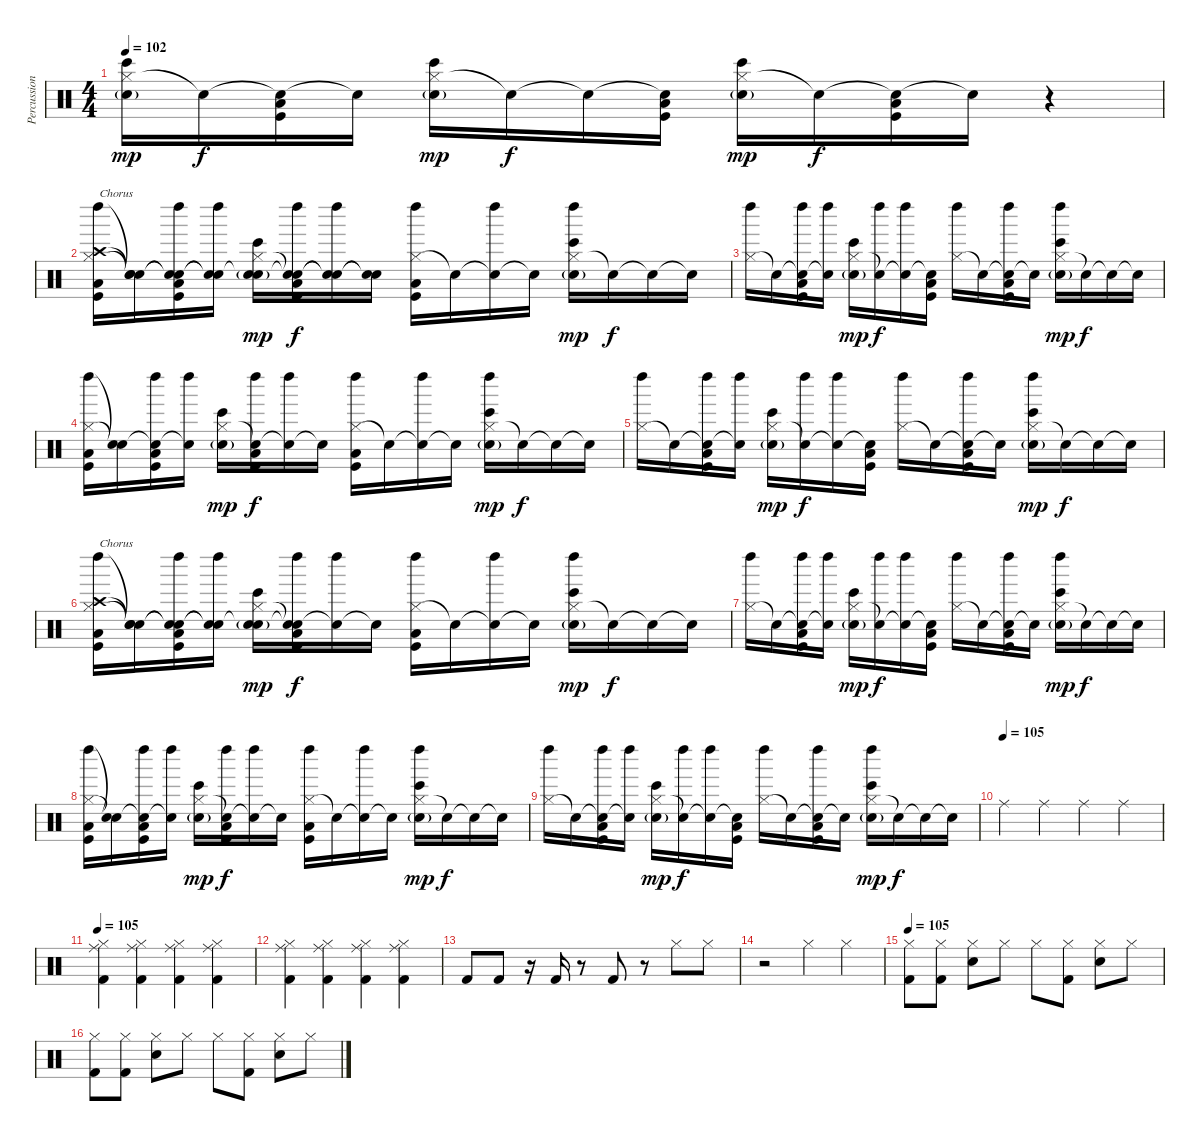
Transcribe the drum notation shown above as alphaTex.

\track ("Percussions" "Percussion") {instrument percussion}
\staff {score}
\articulation defaults
\ts (4 4)
\tempo 102
\clef neutral
\ks c
("Hi-Hat (closed)" "Bongo High (hit)" "Electric Snare (hit)"{g}).16{dy mp} "Snare (hit)"{t}.16{dy f} ("Snare (hit)"{t} "Low Floor Tom (hit)" "Kick (hit)").16 "Snare (hit)"{t}.16 ("Hi-Hat (closed)" "Bongo High (hit)" "Electric Snare (hit)"{g}).16{dy mp} "Snare (hit)"{t}.16{dy f} "Snare (hit)"{t}.16 ("Snare (hit)"{t} "Low Floor Tom (hit)" "Kick (hit)").16 ("Hi-Hat (closed)" "Bongo High (hit)" "Electric Snare (hit)"{g}).16{dy mp} "Snare (hit)"{t}.16{dy f} ("Snare (hit)"{t} "Low Floor Tom (hit)" "Kick (hit)").16 "Snare (hit)"{t}.16 r.4 |
("Crash high (hit)" "Hi-Hat (closed)" "Left Maraca (hit)" "Low Floor Tom (hit)" "Kick (hit)").16{txt "Chorus"} ("Snare (hit)"{t} "Snare (hit)"{t} "Snare (hit)"{t}).16 ("Snare (hit)"{t} "Snare (hit)"{t} "Left Maraca (hit)" "Low Floor Tom (hit)" "Kick (hit)").16 ("Snare (hit)"{t} "Snare (hit)"{t} "Left Maraca (hit)").16 ("Snare (hit)"{t} "Hi-Hat (closed)" "Bongo High (hit)" "Electric Snare (hit)"{g}).16{dy mp} ("Snare (hit)"{t} "Snare (hit)"{t} "Left Maraca (hit)" "Low Floor Tom (hit)" "Kick (hit)").16{dy f} ("Snare (hit)"{t} "Snare (hit)"{t} "Left Maraca (hit)").16 ("Snare (hit)"{t} "Snare (hit)"{t}).16 ("Hi-Hat (closed)" "Left Maraca (hit)" "Low Floor Tom (hit)" "Kick (hit)").16 "Snare (hit)"{t}.16 ("Snare (hit)"{t} "Left Maraca (hit)").16 "Snare (hit)"{t}.16 ("Hi-Hat (closed)" "Left Maraca (hit)" "Bongo High (hit)" "Electric Snare (hit)"{g}).16{dy mp} "Snare (hit)"{t}.16{dy f} "Snare (hit)"{t}.16 "Snare (hit)"{t}.16 |
("Hi-Hat (closed)" "Left Maraca (hit)").16 "Snare (hit)"{t}.16 ("Snare (hit)"{t} "Left Maraca (hit)" "Low Floor Tom (hit)" "Kick (hit)").16 ("Snare (hit)"{t} "Left Maraca (hit)").16 ("Hi-Hat (closed)" "Bongo High (hit)" "Electric Snare (hit)"{g}).16{dy mp} ("Snare (hit)"{t} "Left Maraca (hit)").16{dy f} ("Snare (hit)"{t} "Left Maraca (hit)").16 ("Snare (hit)"{t} "Low Floor Tom (hit)" "Kick (hit)").16 ("Hi-Hat (closed)" "Left Maraca (hit)").16 "Snare (hit)"{t}.16 ("Snare (hit)"{t} "Left Maraca (hit)" "Low Floor Tom (hit)" "Kick (hit)").16 "Snare (hit)"{t}.16 ("Hi-Hat (closed)" "Left Maraca (hit)" "Bongo High (hit)" "Electric Snare (hit)"{g}).16{dy mp} "Snare (hit)"{t}.16{dy f} "Snare (hit)"{t}.16 "Snare (hit)"{t}.16 |
("Hi-Hat (closed)" "Left Maraca (hit)" "Low Floor Tom (hit)" "Kick (hit)").16 ("Snare (hit)"{t} "Snare (hit)"{t}).16 ("Snare (hit)"{t} "Left Maraca (hit)" "Low Floor Tom (hit)" "Kick (hit)").16 ("Snare (hit)"{t} "Left Maraca (hit)").16 ("Hi-Hat (closed)" "Bongo High (hit)" "Electric Snare (hit)"{g}).16{dy mp} ("Snare (hit)"{t} "Left Maraca (hit)" "Low Floor Tom (hit)" "Kick (hit)").16{dy f} ("Snare (hit)"{t} "Left Maraca (hit)").16 "Snare (hit)"{t}.16 ("Hi-Hat (closed)" "Left Maraca (hit)" "Low Floor Tom (hit)" "Kick (hit)").16 "Snare (hit)"{t}.16 ("Snare (hit)"{t} "Left Maraca (hit)").16 "Snare (hit)"{t}.16 ("Hi-Hat (closed)" "Left Maraca (hit)" "Bongo High (hit)" "Electric Snare (hit)"{g}).16{dy mp} "Snare (hit)"{t}.16{dy f} "Snare (hit)"{t}.16 "Snare (hit)"{t}.16 |
("Hi-Hat (closed)" "Left Maraca (hit)").16 "Snare (hit)"{t}.16 ("Snare (hit)"{t} "Left Maraca (hit)" "Low Floor Tom (hit)" "Kick (hit)").16 ("Snare (hit)"{t} "Left Maraca (hit)").16 ("Hi-Hat (closed)" "Bongo High (hit)" "Electric Snare (hit)"{g}).16{dy mp} ("Snare (hit)"{t} "Left Maraca (hit)").16{dy f} ("Snare (hit)"{t} "Left Maraca (hit)").16 ("Snare (hit)"{t} "Low Floor Tom (hit)" "Kick (hit)").16 ("Hi-Hat (closed)" "Left Maraca (hit)").16 "Snare (hit)"{t}.16 ("Snare (hit)"{t} "Left Maraca (hit)" "Low Floor Tom (hit)" "Kick (hit)").16 "Snare (hit)"{t}.16 ("Hi-Hat (closed)" "Left Maraca (hit)" "Bongo High (hit)" "Electric Snare (hit)"{g}).16{dy mp} "Snare (hit)"{t}.16{dy f} "Snare (hit)"{t}.16 "Snare (hit)"{t}.16 |
("Crash high (hit)" "Hi-Hat (closed)" "Left Maraca (hit)" "Low Floor Tom (hit)" "Kick (hit)").16{txt "Chorus"} ("Snare (hit)"{t} "Snare (hit)"{t} "Snare (hit)"{t}).16 ("Snare (hit)"{t} "Snare (hit)"{t} "Left Maraca (hit)" "Low Floor Tom (hit)" "Kick (hit)").16 ("Snare (hit)"{t} "Snare (hit)"{t} "Left Maraca (hit)").16 ("Snare (hit)"{t} "Hi-Hat (closed)" "Bongo High (hit)" "Electric Snare (hit)"{g}).16{dy mp} ("Snare (hit)"{t} "Snare (hit)"{t} "Left Maraca (hit)" "Low Floor Tom (hit)" "Kick (hit)").16{dy f} ("Snare (hit)"{t} "Left Maraca (hit)").16 "Snare (hit)"{t}.16 ("Hi-Hat (closed)" "Left Maraca (hit)" "Low Floor Tom (hit)" "Kick (hit)").16 "Snare (hit)"{t}.16 ("Snare (hit)"{t} "Left Maraca (hit)").16 "Snare (hit)"{t}.16 ("Hi-Hat (closed)" "Left Maraca (hit)" "Bongo High (hit)" "Electric Snare (hit)"{g}).16{dy mp} "Snare (hit)"{t}.16{dy f} "Snare (hit)"{t}.16 "Snare (hit)"{t}.16 |
("Hi-Hat (closed)" "Left Maraca (hit)").16 "Snare (hit)"{t}.16 ("Snare (hit)"{t} "Left Maraca (hit)" "Low Floor Tom (hit)" "Kick (hit)").16 ("Snare (hit)"{t} "Left Maraca (hit)").16 ("Hi-Hat (closed)" "Bongo High (hit)" "Electric Snare (hit)"{g}).16{dy mp} ("Snare (hit)"{t} "Left Maraca (hit)").16{dy f} ("Snare (hit)"{t} "Left Maraca (hit)").16 ("Snare (hit)"{t} "Low Floor Tom (hit)" "Kick (hit)").16 ("Hi-Hat (closed)" "Left Maraca (hit)").16 "Snare (hit)"{t}.16 ("Snare (hit)"{t} "Left Maraca (hit)" "Low Floor Tom (hit)" "Kick (hit)").16 "Snare (hit)"{t}.16 ("Hi-Hat (closed)" "Left Maraca (hit)" "Bongo High (hit)" "Electric Snare (hit)"{g}).16{dy mp} "Snare (hit)"{t}.16{dy f} "Snare (hit)"{t}.16 "Snare (hit)"{t}.16 |
("Hi-Hat (closed)" "Left Maraca (hit)" "Low Floor Tom (hit)" "Kick (hit)").16 ("Snare (hit)"{t} "Snare (hit)"{t}).16 ("Snare (hit)"{t} "Left Maraca (hit)" "Low Floor Tom (hit)" "Kick (hit)").16 ("Snare (hit)"{t} "Left Maraca (hit)").16 ("Hi-Hat (closed)" "Bongo High (hit)" "Electric Snare (hit)"{g}).16{dy mp} ("Snare (hit)"{t} "Left Maraca (hit)" "Low Floor Tom (hit)" "Kick (hit)").16{dy f} ("Snare (hit)"{t} "Left Maraca (hit)").16 "Snare (hit)"{t}.16 ("Hi-Hat (closed)" "Left Maraca (hit)" "Low Floor Tom (hit)" "Kick (hit)").16 "Snare (hit)"{t}.16 ("Snare (hit)"{t} "Left Maraca (hit)").16 "Snare (hit)"{t}.16 ("Hi-Hat (closed)" "Left Maraca (hit)" "Bongo High (hit)" "Electric Snare (hit)"{g}).16{dy mp} "Snare (hit)"{t}.16{dy f} "Snare (hit)"{t}.16 "Snare (hit)"{t}.16 |
("Hi-Hat (closed)" "Left Maraca (hit)").16{volume 0} "Snare (hit)"{t}.16 ("Snare (hit)"{t} "Left Maraca (hit)" "Low Floor Tom (hit)" "Kick (hit)").16 ("Snare (hit)"{t} "Left Maraca (hit)").16 ("Hi-Hat (closed)" "Bongo High (hit)" "Electric Snare (hit)"{g}).16{dy mp} ("Snare (hit)"{t} "Left Maraca (hit)").16{dy f} ("Snare (hit)"{t} "Left Maraca (hit)").16 ("Snare (hit)"{t} "Low Floor Tom (hit)" "Kick (hit)").16 ("Hi-Hat (closed)" "Left Maraca (hit)").16 "Snare (hit)"{t}.16 ("Snare (hit)"{t} "Left Maraca (hit)" "Low Floor Tom (hit)" "Kick (hit)").16 "Snare (hit)"{t}.16 ("Hi-Hat (closed)" "Left Maraca (hit)" "Bongo High (hit)" "Electric Snare (hit)"{g}).16{dy mp} "Snare (hit)"{t}.16{dy f} "Snare (hit)"{t}.16 "Snare (hit)"{t}.16 |
\tempo (105)
"Ride (middle)".4{volume 16} "Ride (middle)".4 "Ride (middle)".4 "Ride (middle)".4 |
\tempo 105
("Hi-Hat (closed)" "Ride (middle)" "Kick (hit) 2").4 ("Hi-Hat (closed)" "Ride (middle)" "Kick (hit) 2").4 ("Hi-Hat (closed)" "Ride (middle)" "Kick (hit) 2").4 ("Hi-Hat (closed)" "Ride (middle)" "Kick (hit) 2").4 |
("Hi-Hat (closed)" "Ride (middle)" "Kick (hit) 2").4 ("Hi-Hat (closed)" "Ride (middle)" "Kick (hit) 2").4 ("Hi-Hat (closed)" "Ride (middle)" "Kick (hit) 2").4 ("Hi-Hat (closed)" "Ride (middle)" "Kick (hit) 2").4 |
"Kick (hit) 2".8 "Kick (hit) 2".8 r.16 "Kick (hit) 2".16 r.8 "Kick (hit) 2".8 r.8 "Hi-Hat (closed)".8 "Hi-Hat (closed)".8 |
r.2 "Hi-Hat (closed)".4 "Hi-Hat (closed)".4 |
\tempo 105
("Hi-Hat (closed)" "Kick (hit) 2").8 ("Hi-Hat (closed)" "Kick (hit) 2").8 ("Hi-Hat (closed)" "Snare (hit) 2").8 "Hi-Hat (closed)".8 "Hi-Hat (closed)".8 ("Hi-Hat (closed)" "Kick (hit) 2").8 ("Hi-Hat (closed)" "Snare (hit) 2").8 "Hi-Hat (closed)".8 |
("Hi-Hat (closed)" "Kick (hit) 2").8 ("Hi-Hat (closed)" "Kick (hit) 2").8 ("Hi-Hat (closed)" "Snare (hit) 2").8 "Hi-Hat (closed)".8 "Hi-Hat (closed)".8 ("Hi-Hat (closed)" "Kick (hit) 2").8 ("Hi-Hat (closed)" "Snare (hit) 2").8 "Hi-Hat (closed)".8
